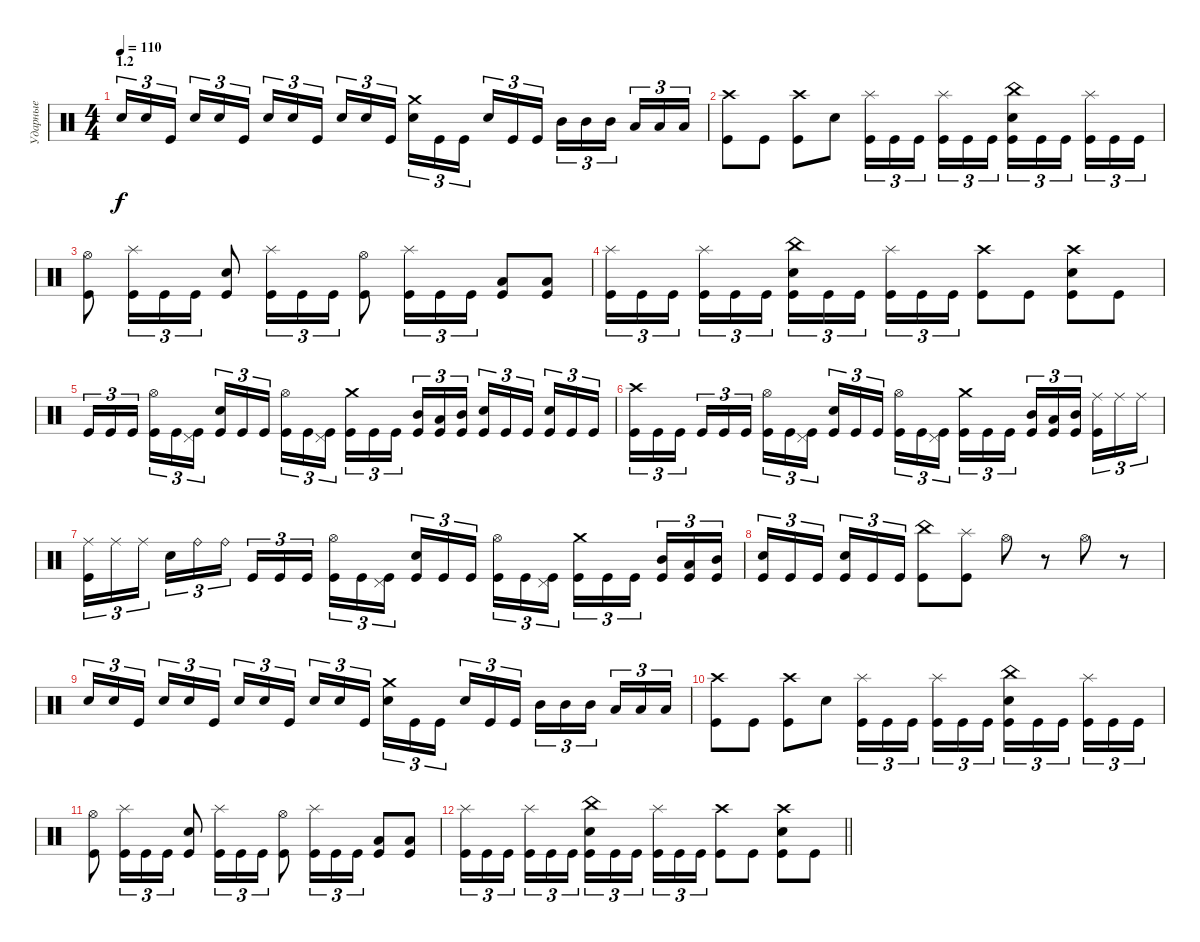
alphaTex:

\track ("Ударные" "Ударные") {instrument percussion}
\staff {score}
\articulation defaults
\ts (4 4)
\section ("" "1.2")
\tempo 110
\clef neutral
\ks c "Electric Snare (hit)".16{tu (3 2) dy f} "Electric Snare (hit)".16{tu (3 2)} "Kick (hit)".16{tu (3 2) beam splitsecondary} "Electric Snare (hit)".16{tu (3 2)} "Electric Snare (hit)".16{tu (3 2)} "Kick (hit)".16{tu (3 2)} "Electric Snare (hit)".16{tu (3 2)} "Electric Snare (hit)".16{tu (3 2)} "Kick (hit)".16{tu (3 2) beam splitsecondary} "Electric Snare (hit)".16{tu (3 2)} "Electric Snare (hit)".16{tu (3 2)} "Kick (hit)".16{tu (3 2)}
("Crash medium (hit)" "Electric Snare (hit)").16{tu (3 2)} "Kick (hit)".16{tu (3 2)} "Kick (hit)".16{tu (3 2) beam splitsecondary} "Electric Snare (hit)".16{tu (3 2)} "Kick (hit)".16{tu (3 2)} "Kick (hit)".16{tu (3 2)} "Mid Tom (hit)".16{tu (3 2)} "Mid Tom (hit)".16{tu (3 2)} "Mid Tom (hit)".16{tu (3 2) beam splitsecondary} "Low Tom (hit)".16{tu (3 2)} "Low Tom (hit)".16{tu (3 2)} "Low Tom (hit)".16{tu (3 2)} |
("Crash high (hit)" "Kick (hit)").8 "Kick (hit)".8 ("Crash high (hit)" "Kick (hit)").8 "Electric Snare (hit)".8 ("Splash (hit)" "Kick (hit)").16{tu (3 2)} "Kick (hit)".16{tu (3 2)} "Kick (hit)".16{tu (3 2) beam splitsecondary} ("Splash (hit)" "Kick (hit)").16{tu (3 2)} "Kick (hit)".16{tu (3 2)} "Kick (hit)".16{tu (3 2)} ("China (hit)" "Electric Snare (hit)" "Kick (hit)").16{tu (3 2)} "Kick (hit)".16{tu (3 2)} "Kick (hit)".16{tu (3 2) beam splitsecondary} ("Splash (hit)" "Kick (hit)").16{tu (3 2)} "Kick (hit)".16{tu (3 2)} "Kick (hit)".16{tu (3 2)} |
("Hi-Hat (open)" "Kick (hit)").8 ("Splash (hit)" "Kick (hit)").16{tu (3 2)} "Kick (hit)".16{tu (3 2)} "Kick (hit)".16{tu (3 2)} ("Electric Snare (hit)" "Kick (hit)").8 ("Splash (hit)" "Kick (hit)").16{tu (3 2)} "Kick (hit)".16{tu (3 2)} "Kick (hit)".16{tu (3 2)} ("Hi-Hat (open)" "Kick (hit)").8 ("Splash (hit)" "Kick (hit)").16{tu (3 2)} "Kick (hit)".16{tu (3 2)} "Kick (hit)".16{tu (3 2)} ("Low Floor Tom (hit)" "Kick (hit)").8 ("Low Floor Tom (hit)" "Kick (hit)").8 |
("Splash (hit)" "Kick (hit)").16{tu (3 2)} "Kick (hit)".16{tu (3 2)} "Kick (hit)".16{tu (3 2) beam splitsecondary} ("Splash (hit)" "Kick (hit)").16{tu (3 2)} "Kick (hit)".16{tu (3 2)} "Kick (hit)".16{tu (3 2)} ("China (hit)" "Electric Snare (hit)" "Kick (hit)").16{tu (3 2)} "Kick (hit)".16{tu (3 2)} "Kick (hit)".16{tu (3 2) beam splitsecondary} ("Splash (hit)" "Kick (hit)").16{tu (3 2)} "Kick (hit)".16{tu (3 2)} "Kick (hit)".16{tu (3 2)} ("Crash high (hit)" "Kick (hit)").8 "Kick (hit)".8 ("Crash high (hit)" "Electric Snare (hit)" "Kick (hit)").8 "Kick (hit)".8 |
"Kick (hit)".16{tu (3 2)} "Kick (hit)".16{tu (3 2)} "Kick (hit)".16{tu (3 2) beam splitsecondary} ("Hi-Hat (open)" "Kick (hit)").16{tu (3 2)} "Kick (hit)".16{tu (3 2)} ("Pedal Hi-Hat (hit)" "Kick (hit)").16{tu (3 2)} ("Electric Snare (hit)" "Kick (hit)").16{tu (3 2)} "Kick (hit)".16{tu (3 2)} "Kick (hit)".16{tu (3 2) beam splitsecondary} ("Hi-Hat (open)" "Kick (hit)").16{tu (3 2)} "Kick (hit)".16{tu (3 2)} ("Pedal Hi-Hat (hit)" "Kick (hit)").16{tu (3 2)} ("Crash medium (hit)" "Kick (hit)").16{tu (3 2)} "Kick (hit)".16{tu (3 2)} "Kick (hit)".16{tu (3 2) beam splitsecondary} ("Mid Tom (hit)" "Kick (hit)").16{tu (3 2)} ("Low Tom (hit)" "Kick (hit)").16{tu (3 2)} ("Mid Tom (hit)" "Kick (hit)").16{tu (3 2)} ("Electric Snare (hit)" "Kick (hit)").16{tu (3 2)} "Kick (hit)".16{tu (3 2)} "Kick (hit)".16{tu (3 2) beam splitsecondary} ("Electric Snare (hit)" "Kick (hit)").16{tu (3 2)} "Kick (hit)".16{tu (3 2)} "Kick (hit)".16{tu (3 2)} |
("Crash high (hit)" "Kick (hit)").16{tu (3 2)} "Kick (hit)".16{tu (3 2)} "Kick (hit)".16{tu (3 2) beam splitsecondary} "Kick (hit)".16{tu (3 2)} "Kick (hit)".16{tu (3 2)} "Kick (hit)".16{tu (3 2)} ("Hi-Hat (open)" "Kick (hit)").16{tu (3 2)} "Kick (hit)".16{tu (3 2)} ("Pedal Hi-Hat (hit)" "Kick (hit)").16{tu (3 2) beam splitsecondary} ("Electric Snare (hit)" "Kick (hit)").16{tu (3 2)} "Kick (hit)".16{tu (3 2)} "Kick (hit)".16{tu (3 2)} ("Hi-Hat (open)" "Kick (hit)").16{tu (3 2)} "Kick (hit)".16{tu (3 2)} ("Pedal Hi-Hat (hit)" "Kick (hit)").16{tu (3 2) beam splitsecondary} ("Crash medium (hit)" "Kick (hit)").16{tu (3 2)} "Kick (hit)".16{tu (3 2)} "Kick (hit)".16{tu (3 2)} ("Mid Tom (hit)" "Kick (hit)").16{tu (3 2)} ("Low Tom (hit)" "Kick (hit)").16{tu (3 2)} ("Mid Tom (hit)" "Kick (hit)").16{tu (3 2) beam splitsecondary} ("Ride (middle)" "Kick (hit)").16{tu (3 2)} "Ride (middle)".16{tu (3 2)} "Ride (middle)".16{tu (3 2)} |
("Ride (middle)" "Kick (hit)").16{tu (3 2)} "Ride (middle)".16{tu (3 2)} "Ride (middle)".16{tu (3 2) beam splitsecondary} "Electric Snare (hit)".16{tu (3 2)} "Ride (bell)".16{tu (3 2)} "Ride (bell)".16{tu (3 2)} "Kick (hit)".16{tu (3 2)} "Kick (hit)".16{tu (3 2)} "Kick (hit)".16{tu (3 2) beam splitsecondary} ("Hi-Hat (open)" "Kick (hit)").16{tu (3 2)} "Kick (hit)".16{tu (3 2)} ("Pedal Hi-Hat (hit)" "Kick (hit)").16{tu (3 2)} ("Electric Snare (hit)" "Kick (hit)").16{tu (3 2)} "Kick (hit)".16{tu (3 2)} "Kick (hit)".16{tu (3 2) beam splitsecondary} ("Hi-Hat (open)" "Kick (hit)").16{tu (3 2)} "Kick (hit)".16{tu (3 2)} ("Pedal Hi-Hat (hit)" "Kick (hit)").16{tu (3 2)} ("Crash medium (hit)" "Kick (hit)").16{tu (3 2)} "Kick (hit)".16{tu (3 2)} "Kick (hit)".16{tu (3 2) beam splitsecondary} ("Mid Tom (hit)" "Kick (hit)").16{tu (3 2)} ("Low Tom (hit)" "Kick (hit)").16{tu (3 2)} ("Mid Tom (hit)" "Kick (hit)").16{tu (3 2)} |
("Electric Snare (hit)" "Kick (hit)").16{tu (3 2)} "Kick (hit)".16{tu (3 2)} "Kick (hit)".16{tu (3 2) beam splitsecondary} ("Electric Snare (hit)" "Kick (hit)").16{tu (3 2)} "Kick (hit)".16{tu (3 2)} "Kick (hit)".16{tu (3 2)} ("China (hit)" "Kick (hit)").8 ("Splash (hit)" "Kick (hit)").8 "Hi-Hat (open)".8 r.8 "Hi-Hat (open)".8 r.8 |
"Electric Snare (hit)".16{tu (3 2)} "Electric Snare (hit)".16{tu (3 2)} "Kick (hit)".16{tu (3 2) beam splitsecondary} "Electric Snare (hit)".16{tu (3 2)} "Electric Snare (hit)".16{tu (3 2)} "Kick (hit)".16{tu (3 2)} "Electric Snare (hit)".16{tu (3 2)} "Electric Snare (hit)".16{tu (3 2)} "Kick (hit)".16{tu (3 2) beam splitsecondary} "Electric Snare (hit)".16{tu (3 2)} "Electric Snare (hit)".16{tu (3 2)} "Kick (hit)".16{tu (3 2)} ("Crash medium (hit)" "Electric Snare (hit)").16{tu (3 2)} "Kick (hit)".16{tu (3 2)} "Kick (hit)".16{tu (3 2) beam splitsecondary} "Electric Snare (hit)".16{tu (3 2)} "Kick (hit)".16{tu (3 2)} "Kick (hit)".16{tu (3 2)} "Mid Tom (hit)".16{tu (3 2)} "Mid Tom (hit)".16{tu (3 2)} "Mid Tom (hit)".16{tu (3 2) beam splitsecondary} "Low Tom (hit)".16{tu (3 2)} "Low Tom (hit)".16{tu (3 2)} "Low Tom (hit)".16{tu (3 2)} |
("Crash high (hit)" "Kick (hit)").8 "Kick (hit)".8 ("Crash high (hit)" "Kick (hit)").8 "Electric Snare (hit)".8 ("Splash (hit)" "Kick (hit)").16{tu (3 2)} "Kick (hit)".16{tu (3 2)} "Kick (hit)".16{tu (3 2) beam splitsecondary} ("Splash (hit)" "Kick (hit)").16{tu (3 2)} "Kick (hit)".16{tu (3 2)} "Kick (hit)".16{tu (3 2)} ("China (hit)" "Electric Snare (hit)" "Kick (hit)").16{tu (3 2)} "Kick (hit)".16{tu (3 2)} "Kick (hit)".16{tu (3 2) beam splitsecondary} ("Splash (hit)" "Kick (hit)").16{tu (3 2)} "Kick (hit)".16{tu (3 2)} "Kick (hit)".16{tu (3 2)} |
("Hi-Hat (open)" "Kick (hit)").8 ("Splash (hit)" "Kick (hit)").16{tu (3 2)} "Kick (hit)".16{tu (3 2)} "Kick (hit)".16{tu (3 2)} ("Electric Snare (hit)" "Kick (hit)").8 ("Splash (hit)" "Kick (hit)").16{tu (3 2)} "Kick (hit)".16{tu (3 2)} "Kick (hit)".16{tu (3 2)} ("Hi-Hat (open)" "Kick (hit)").8 ("Splash (hit)" "Kick (hit)").16{tu (3 2)} "Kick (hit)".16{tu (3 2)} "Kick (hit)".16{tu (3 2)} ("Low Floor Tom (hit)" "Kick (hit)").8 ("Low Floor Tom (hit)" "Kick (hit)").8 |
\barLineRight lightlight
("Splash (hit)" "Kick (hit)").16{tu (3 2)} "Kick (hit)".16{tu (3 2)} "Kick (hit)".16{tu (3 2) beam splitsecondary} ("Splash (hit)" "Kick (hit)").16{tu (3 2)} "Kick (hit)".16{tu (3 2)} "Kick (hit)".16{tu (3 2)} ("China (hit)" "Electric Snare (hit)" "Kick (hit)").16{tu (3 2)} "Kick (hit)".16{tu (3 2)} "Kick (hit)".16{tu (3 2) beam splitsecondary} ("Splash (hit)" "Kick (hit)").16{tu (3 2)} "Kick (hit)".16{tu (3 2)} "Kick (hit)".16{tu (3 2)} ("Crash high (hit)" "Kick (hit)").8 "Kick (hit)".8 ("Crash high (hit)" "Electric Snare (hit)" "Kick (hit)").8 "Kick (hit)".8
